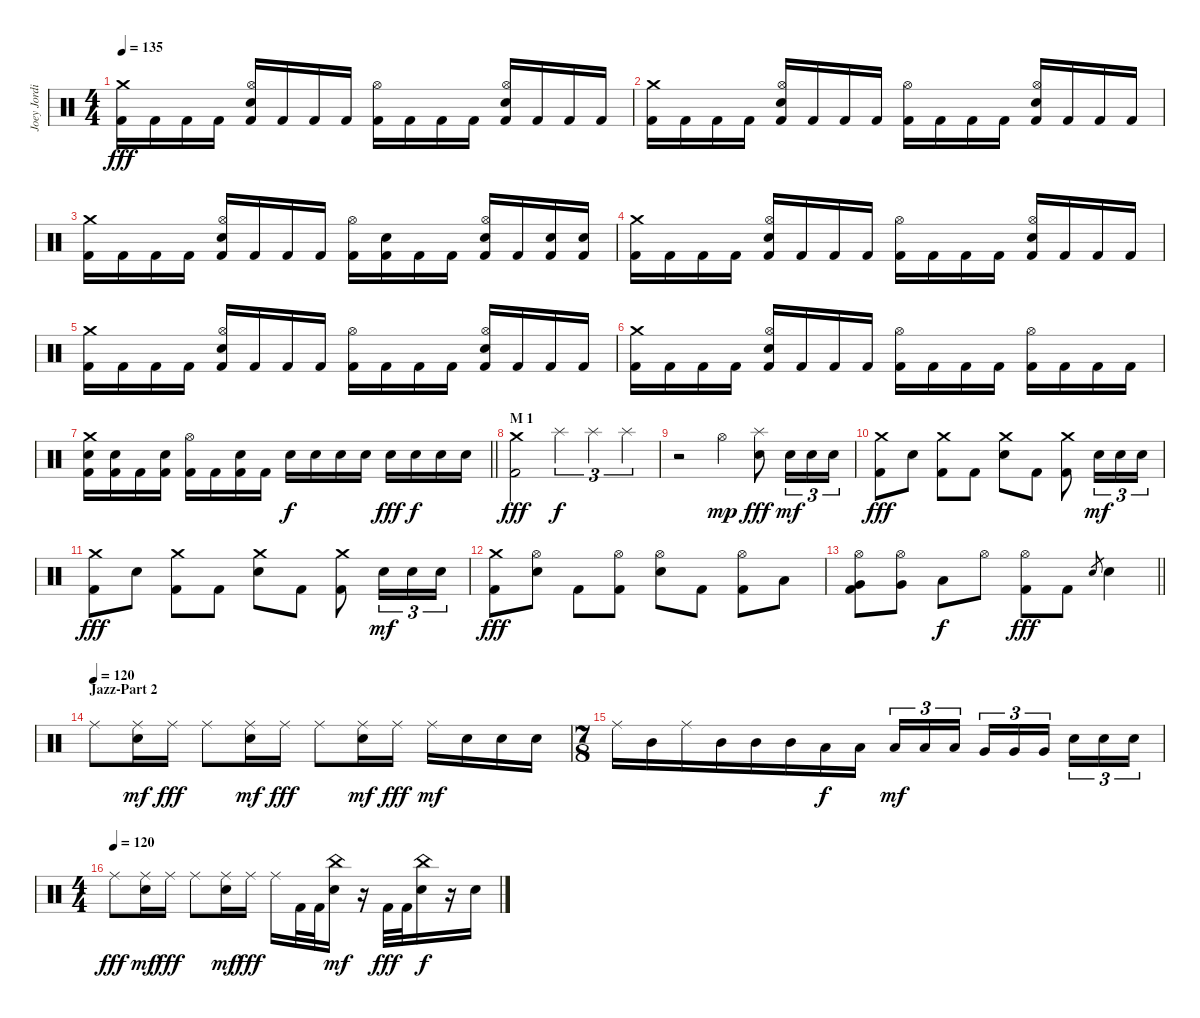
\track ("Joey Jordison" "Joey Jordi") {instrument percussion}
\staff {score}
\articulation defaults
\ts (4 4)
\tempo 135
\clef neutral
\ks c
("Crash medium (hit)" "Kick (hit) 2").16{dy fff} "Kick (hit) 2".16 "Kick (hit) 2".16 "Kick (hit) 2".16 ("Hi-Hat (open)" "Electric Snare (hit)" "Kick (hit) 2").16 "Kick (hit) 2".16 "Kick (hit) 2".16 "Kick (hit) 2".16 ("Hi-Hat (open)" "Kick (hit) 2").16 "Kick (hit) 2".16 "Kick (hit) 2".16 "Kick (hit) 2".16 ("Hi-Hat (open)" "Electric Snare (hit)" "Kick (hit) 2").16 "Kick (hit) 2".16 "Kick (hit) 2".16 "Kick (hit) 2".16 |
("Crash medium (hit)" "Kick (hit) 2").16 "Kick (hit) 2".16 "Kick (hit) 2".16 "Kick (hit) 2".16 ("Hi-Hat (open)" "Electric Snare (hit)" "Kick (hit) 2").16 "Kick (hit) 2".16 "Kick (hit) 2".16 "Kick (hit) 2".16 ("Hi-Hat (open)" "Kick (hit) 2").16 "Kick (hit) 2".16 "Kick (hit) 2".16 "Kick (hit) 2".16 ("Hi-Hat (open)" "Electric Snare (hit)" "Kick (hit) 2").16 "Kick (hit) 2".16 "Kick (hit) 2".16 "Kick (hit) 2".16 |
("Crash medium (hit)" "Kick (hit) 2").16 "Kick (hit) 2".16 "Kick (hit) 2".16 "Kick (hit) 2".16 ("Hi-Hat (open)" "Electric Snare (hit)" "Kick (hit) 2").16 "Kick (hit) 2".16 "Kick (hit) 2".16 "Kick (hit) 2".16 ("Hi-Hat (open)" "Kick (hit) 2").16 ("Electric Snare (hit)" "Kick (hit) 2").16 "Kick (hit) 2".16 "Kick (hit) 2".16 ("Hi-Hat (open)" "Electric Snare (hit)" "Kick (hit) 2").16 "Kick (hit) 2".16 ("Electric Snare (hit)" "Kick (hit) 2").16 ("Electric Snare (hit)" "Kick (hit) 2").16 |
("Crash medium (hit)" "Kick (hit) 2").16 "Kick (hit) 2".16 "Kick (hit) 2".16 "Kick (hit) 2".16 ("Hi-Hat (open)" "Electric Snare (hit)" "Kick (hit) 2").16 "Kick (hit) 2".16 "Kick (hit) 2".16 "Kick (hit) 2".16 ("Hi-Hat (open)" "Kick (hit) 2").16 "Kick (hit) 2".16 "Kick (hit) 2".16 "Kick (hit) 2".16 ("Hi-Hat (open)" "Electric Snare (hit)" "Kick (hit) 2").16 "Kick (hit) 2".16 "Kick (hit) 2".16 "Kick (hit) 2".16 |
("Crash medium (hit)" "Kick (hit) 2").16 "Kick (hit) 2".16 "Kick (hit) 2".16 "Kick (hit) 2".16 ("Hi-Hat (open)" "Electric Snare (hit)" "Kick (hit) 2").16 "Kick (hit) 2".16 "Kick (hit) 2".16 "Kick (hit) 2".16 ("Hi-Hat (open)" "Kick (hit) 2").16 "Kick (hit) 2".16 "Kick (hit) 2".16 "Kick (hit) 2".16 ("Hi-Hat (open)" "Electric Snare (hit)" "Kick (hit) 2").16 "Kick (hit) 2".16 "Kick (hit) 2".16 "Kick (hit) 2".16 |
("Crash medium (hit)" "Kick (hit) 2").16 "Kick (hit) 2".16 "Kick (hit) 2".16 "Kick (hit) 2".16 ("Hi-Hat (open)" "Electric Snare (hit)" "Kick (hit) 2").16 "Kick (hit) 2".16 "Kick (hit) 2".16 "Kick (hit) 2".16 ("Hi-Hat (open)" "Kick (hit) 2").16 "Kick (hit) 2".16 "Kick (hit) 2".16 "Kick (hit) 2".16 ("Hi-Hat (open)" "Kick (hit) 2").16 "Kick (hit) 2".16 "Kick (hit) 2".16 "Kick (hit) 2".16 |
\barLineRight lightlight
("Crash medium (hit)" "Electric Snare (hit)" "Kick (hit) 2").16 ("Electric Snare (hit)" "Kick (hit) 2").16 "Kick (hit) 2".16 ("Electric Snare (hit)" "Kick (hit) 2").16 ("Hi-Hat (open)" "Kick (hit) 2").16 "Kick (hit) 2".16 ("Electric Snare (hit)" "Kick (hit) 2").16 "Kick (hit) 2".16 "Electric Snare (hit)".16{dy f} "Electric Snare (hit)".16 "Electric Snare (hit)".16 "Electric Snare (hit)".16 "Electric Snare (hit)".16{dy fff} "Electric Snare (hit)".16{dy f} "Electric Snare (hit)".16 "Electric Snare (hit)".16 |
\section ("" "M 1")
("Crash medium (hit)" "Kick (hit) 2").2{dy fff} "Splash (hit)".4{tu (3 2) dy f} "Splash (hit)".4{tu (3 2)} "Splash (hit)".4{tu (3 2)} |
r.2 "Hi-Hat (open)".4{dy mp} ("Splash (hit)" "Electric Snare (hit)").8{dy fff} "Electric Snare (hit)".16{tu (3 2) dy mf} "Electric Snare (hit)".16{tu (3 2)} "Electric Snare (hit)".16{tu (3 2)} |
("Crash medium (hit)" "Kick (hit) 2").8{dy fff} "Electric Snare (hit)".8 ("Crash medium (hit)" "Kick (hit) 2").8 "Kick (hit) 2".8 ("Crash medium (hit)" "Electric Snare (hit)").8 "Kick (hit) 2".8 ("Crash medium (hit)" "Kick (hit) 2").8 "Electric Snare (hit)".16{tu (3 2) dy mf} "Electric Snare (hit)".16{tu (3 2)} "Electric Snare (hit)".16{tu (3 2)} |
("Crash medium (hit)" "Kick (hit) 2").8{dy fff} "Electric Snare (hit)".8 ("Crash medium (hit)" "Kick (hit) 2").8 "Kick (hit) 2".8 ("Crash medium (hit)" "Electric Snare (hit)").8 "Kick (hit) 2".8 ("Crash medium (hit)" "Kick (hit) 2").8 "Electric Snare (hit)".16{tu (3 2) dy mf} "Electric Snare (hit)".16{tu (3 2)} "Electric Snare (hit)".16{tu (3 2)} |
("Crash medium (hit)" "Kick (hit) 2").8{dy fff} ("Hi-Hat (open)" "Electric Snare (hit)").8 "Kick (hit) 2".8 ("Hi-Hat (open)" "Kick (hit) 2").8 ("Hi-Hat (open)" "Electric Snare (hit)").8 "Kick (hit) 2".8 ("Hi-Hat (open)" "Kick (hit) 2").8 "Low Tom (hit)".8 |
\barLineRight lightlight
("Hi-Hat (open)" "Very Low Tom (hit)" "Kick (hit) 2").8 ("Hi-Hat (open)" "Very Low Tom (hit)").8 "Low Floor Tom (hit)".8{dy f} "Hi-Hat (open)".8 ("Hi-Hat (open)" "Kick (hit) 2").8{dy fff} "Kick (hit) 2".8 "Electric Snare (hit)".8{gr} "Electric Snare (hit)".4 |
\section ("" "Jazz-Part 2")
\tempo (120)
"Ride (middle)".8 ("Ride (middle)" "Electric Snare (hit)").16{dy mf} "Ride (middle)".16{dy fff} "Ride (middle)".8 ("Ride (middle)" "Electric Snare (hit)").16{dy mf} "Ride (middle)".16{dy fff} "Ride (middle)".8 ("Ride (middle)" "Electric Snare (hit)").16{dy mf} "Ride (middle)".16{dy fff} "Ride (middle)".16{dy mf} "Electric Snare (hit)".16 "Electric Snare (hit)".16 "Electric Snare (hit)".16 |
\ts (7 8)
"Ride (middle)".16 "Mid Tom (hit)".16 "Ride (middle)".16 "Mid Tom (hit)".16 "Mid Tom (hit)".16 "Mid Tom (hit)".16 "Low Tom (hit)".16{dy f} "Low Tom (hit)".16 "Low Tom (hit)".16{tu (3 2) dy mf} "Low Tom (hit)".16{tu (3 2)} "Low Tom (hit)".16{tu (3 2)} "Very Low Tom (hit)".16{tu (3 2)} "Very Low Tom (hit)".16{tu (3 2)} "Very Low Tom (hit)".16{tu (3 2)} "Electric Snare (hit)".16{tu (3 2)} "Electric Snare (hit)".16{tu (3 2)} "Electric Snare (hit)".16{tu (3 2)} |
\ts (4 4)
\tempo (120)
"Ride (middle)".8{dy fff} ("Ride (middle)" "Electric Snare (hit)").16{dy mf} "Ride (middle)".16{dy fff} "Ride (middle)".8 ("Ride (middle)" "Electric Snare (hit)").16{dy mf} "Ride (middle)".16{dy fff} "Ride (middle)".16 "Kick (hit) 2".32 "Kick (hit) 2".32 ("China (hit)" "Electric Snare (hit)").16{dy mf} r.16 "Kick (hit) 2".32{dy fff} "Kick (hit) 2".32 ("China (hit)" "Electric Snare (hit)").16{dy f} r.16 "Electric Snare (hit)".16
